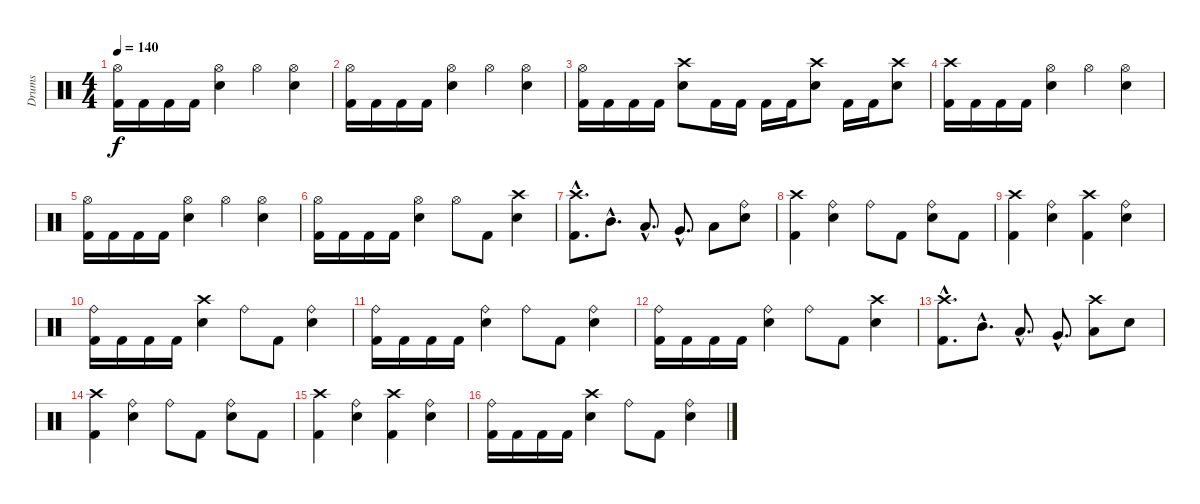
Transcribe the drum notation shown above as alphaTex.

\track ("Drums" "Drums") {instrument percussion}
\staff {score}
\articulation defaults
\ts (4 4)
\tempo 140
\clef neutral
\ks c
("Hi-Hat (open)" "Kick (hit) 2").16{dy f} "Kick (hit) 2".16 "Kick (hit) 2".16 "Kick (hit) 2".16 ("Snare (hit) 2" "Hi-Hat (open)").4 "Hi-Hat (open)".4 ("Snare (hit) 2" "Hi-Hat (open)").4 |
("Kick (hit) 2" "Hi-Hat (open)").16 "Kick (hit) 2".16 "Kick (hit) 2".16 "Kick (hit) 2".16 ("Snare (hit) 2" "Hi-Hat (open)").4 "Hi-Hat (open)".4 ("Hi-Hat (open)" "Snare (hit) 2").4 |
("Hi-Hat (open)" "Kick (hit) 2").16 "Kick (hit) 2".16 "Kick (hit) 2".16 "Kick (hit) 2".16 ("Crash high (hit)" "Snare (hit) 2").8 "Kick (hit) 2".16 "Kick (hit) 2".16 "Kick (hit) 2".16 "Kick (hit) 2".16 ("Crash high (hit)" "Snare (hit) 2").8 "Kick (hit) 2".16 "Kick (hit) 2".16 ("Snare (hit) 2" "Crash high (hit)").8 |
("Kick (hit) 2" "Crash high (hit)").16 "Kick (hit) 2".16 "Kick (hit) 2".16 "Kick (hit) 2".16 ("Hi-Hat (open)" "Snare (hit) 2").4 "Hi-Hat (open)".4 ("Snare (hit) 2" "Hi-Hat (open)").4 |
("Hi-Hat (open)" "Kick (hit) 2").16 "Kick (hit) 2".16 "Kick (hit) 2".16 "Kick (hit) 2".16 ("Snare (hit) 2" "Hi-Hat (open)").4 "Hi-Hat (open)".4 ("Snare (hit) 2" "Hi-Hat (open)").4 |
("Kick (hit) 2" "Hi-Hat (open)").16 "Kick (hit) 2".16 "Kick (hit) 2".16 "Kick (hit) 2".16 ("Hi-Hat (open)" "Snare (hit) 2").4 "Hi-Hat (open)".8 "Kick (hit) 2".8 ("Crash high (hit)" "Snare (hit) 2").4 |
("Crash high (hit)"{hac} "Kick (hit) 2").8{d} "Mid Tom (hit)"{hac}.8{d} "Low Tom (hit)"{hac}.8{d} "Very Low Tom (hit)"{hac}.8{d} "Low Floor Tom (hit)".8 ("Ride (bell)" "Snare (hit) 2").8 |
("Crash high (hit)" "Kick (hit) 2").4 ("Ride (bell)" "Snare (hit) 2").4 "Ride (bell)".8 "Kick (hit) 2".8 ("Snare (hit) 2" "Ride (bell)").8 "Kick (hit) 2".8 |
("Kick (hit) 2" "Crash high (hit)").4 ("Ride (bell)" "Snare (hit) 2").4 ("Crash high (hit)" "Kick (hit) 2").4 ("Ride (bell)" "Snare (hit) 2").4 |
("Kick (hit) 2" "Ride (bell)").16 "Kick (hit) 2".16 "Kick (hit) 2".16 "Kick (hit) 2".16 ("Snare (hit) 2" "Crash high (hit)").4 "Ride (bell)".8 "Kick (hit) 2".8 ("Snare (hit) 2" "Ride (bell)").4 |
("Kick (hit) 2" "Ride (bell)").16 "Kick (hit) 2".16 "Kick (hit) 2".16 "Kick (hit) 2".16 ("Ride (bell)" "Snare (hit) 2").4 "Ride (bell)".8 "Kick (hit) 2".8 ("Ride (bell)" "Snare (hit) 2").4 |
("Kick (hit) 2" "Ride (bell)").16 "Kick (hit) 2".16 "Kick (hit) 2".16 "Kick (hit) 2".16 ("Ride (bell)" "Snare (hit) 2").4 "Ride (bell)".8 "Kick (hit) 2".8 ("Snare (hit) 2" "Crash high (hit)").4 |
("Crash high (hit)"{hac} "Kick (hit) 2").8{d} "Mid Tom (hit)"{hac}.8{d} "Low Tom (hit)"{hac}.8{d} "Very Low Tom (hit)"{hac}.8{d} ("Crash high (hit)" "Low Floor Tom (hit)").8 "Snare (hit) 2".8 |
("Kick (hit) 2" "Crash high (hit)").4 ("Ride (bell)" "Snare (hit) 2").4 "Ride (bell)".8 "Kick (hit) 2".8 ("Snare (hit) 2" "Ride (bell)").8 "Kick (hit) 2".8 |
("Crash high (hit)" "Kick (hit) 2").4 ("Ride (bell)" "Snare (hit) 2").4 ("Kick (hit) 2" "Crash high (hit)").4 ("Snare (hit) 2" "Ride (bell)").4 |
("Kick (hit) 2" "Ride (bell)").16 "Kick (hit) 2".16 "Kick (hit) 2".16 "Kick (hit) 2".16 ("Crash high (hit)" "Snare (hit) 2").4 "Ride (bell)".8 "Kick (hit) 2".8 ("Snare (hit) 2" "Ride (bell)").4
